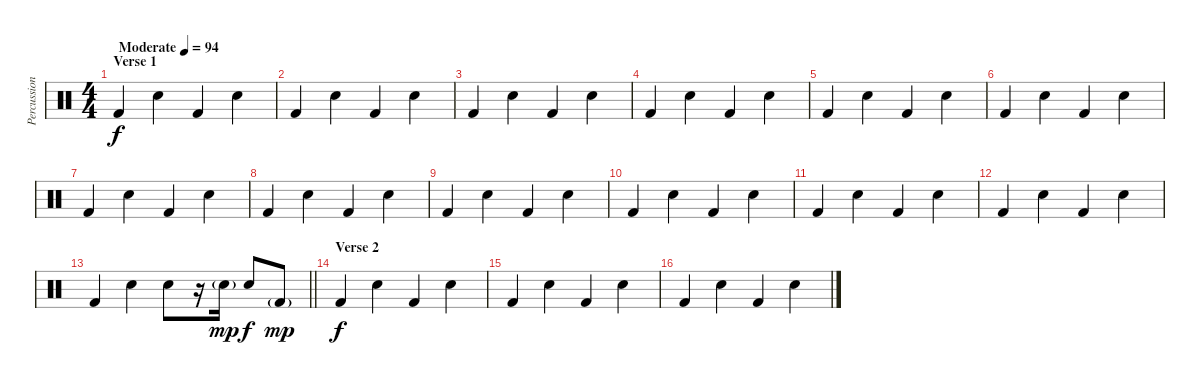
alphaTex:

\track ("Percussion" "Percussion") {instrument percussion}
\staff {score}
\articulation defaults
\ts (4 4)
\section ("" "Verse 1")
\tempo (94 "Moderate")
\clef neutral
\ks c "Kick (hit) 2".4{dy f} "Snare (hit) 2".4 "Kick (hit) 2".4 "Snare (hit) 2".4
|
"Kick (hit) 2".4 "Snare (hit) 2".4 "Kick (hit) 2".4 "Snare (hit) 2".4 |
"Kick (hit) 2".4 "Snare (hit) 2".4 "Kick (hit) 2".4 "Snare (hit) 2".4 |
"Kick (hit) 2".4 "Snare (hit) 2".4 "Kick (hit) 2".4 "Snare (hit) 2".4 |
"Kick (hit) 2".4 "Snare (hit) 2".4 "Kick (hit) 2".4 "Snare (hit) 2".4 |
"Kick (hit) 2".4 "Snare (hit) 2".4 "Kick (hit) 2".4 "Snare (hit) 2".4 |
"Kick (hit) 2".4 "Snare (hit) 2".4 "Kick (hit) 2".4 "Snare (hit) 2".4 |
"Kick (hit) 2".4 "Snare (hit) 2".4 "Kick (hit) 2".4 "Snare (hit) 2".4 |
"Kick (hit) 2".4 "Snare (hit) 2".4 "Kick (hit) 2".4 "Snare (hit) 2".4 |
"Kick (hit) 2".4 "Snare (hit) 2".4 "Kick (hit) 2".4 "Snare (hit) 2".4 |
"Kick (hit) 2".4 "Snare (hit) 2".4 "Kick (hit) 2".4 "Snare (hit) 2".4 |
"Kick (hit) 2".4 "Snare (hit) 2".4 "Kick (hit) 2".4 "Snare (hit) 2".4 |
\barLineRight lightlight "Kick (hit) 2".4 "Snare (hit) 2".4 "Snare (hit) 2".8
r.16 "Snare (hit) 2"{g}.16{dy mp} "Snare (hit) 2".8{dy f} "Kick (hit) 2"{g}.8{dy mp} |
\section ("" "Verse 2")
"Kick (hit) 2".4{dy f} "Snare (hit) 2".4 "Kick (hit) 2".4 "Snare (hit) 2".4 |
"Kick (hit) 2".4 "Snare (hit) 2".4 "Kick (hit) 2".4 "Snare (hit) 2".4 |
"Kick (hit) 2".4 "Snare (hit) 2".4 "Kick (hit) 2".4 "Snare (hit) 2".4
